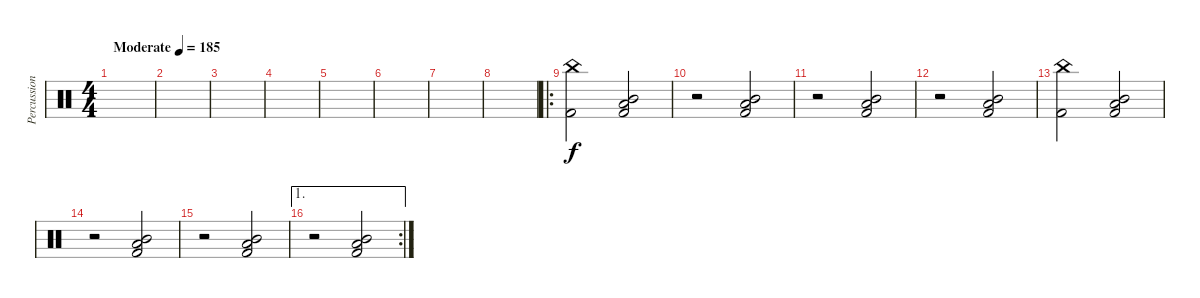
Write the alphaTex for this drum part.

\track ("Percussions" "Percussion") {instrument percussion}
\staff {score}
\articulation defaults
\ts (4 4)
\tempo (185 "Moderate")
\clef neutral
\ks c
|
|
|
|
|
|
|
|
\ro
("Kick (hit) 2" "China (hit)").2 ("Kick (hit) 2" "Mid Tom (hit)" "Low Tom (hit)").2 |
r.2 ("Kick (hit) 2" "Mid Tom (hit)" "Low Tom (hit)").2 |
r.2 ("Kick (hit) 2" "Mid Tom (hit)" "Low Tom (hit)").2 |
r.2 ("Kick (hit) 2" "Mid Tom (hit)" "Low Tom (hit)").2 |
("Kick (hit) 2" "China (hit)").2 ("Kick (hit) 2" "Mid Tom (hit)" "Low Tom (hit)").2 |
r.2 ("Kick (hit) 2" "Mid Tom (hit)" "Low Tom (hit)").2 |
r.2 ("Kick (hit) 2" "Mid Tom (hit)" "Low Tom (hit)").2 |
\ae 1
\rc 2
r.2 ("Kick (hit) 2" "Mid Tom (hit)" "Low Tom (hit)").2
